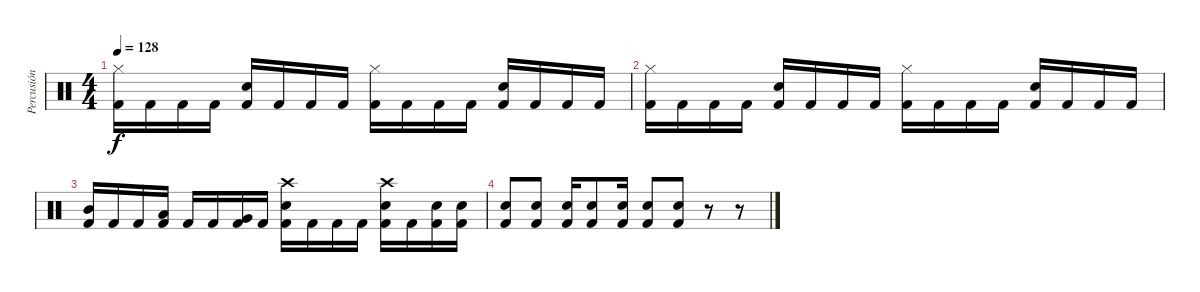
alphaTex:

\track ("Percusión" "Percusión") {instrument percussion}
\staff {score}
\articulation defaults
\ts (4 4)
\tempo 128
\clef neutral
\ks c
("Hi-Hat (closed)" "Kick (hit) 2").16{dy f} "Kick (hit) 2".16 "Kick (hit) 2".16 "Kick (hit) 2".16 ("Snare (hit) 2" "Kick (hit) 2").16 "Kick (hit) 2".16 "Kick (hit) 2".16 "Kick (hit) 2".16 ("Hi-Hat (closed)" "Kick (hit) 2").16 "Kick (hit) 2".16 "Kick (hit) 2".16 "Kick (hit) 2".16 ("Snare (hit) 2" "Kick (hit) 2").16 "Kick (hit) 2".16 "Kick (hit) 2".16 "Kick (hit) 2".16 |
("Hi-Hat (closed)" "Kick (hit) 2").16 "Kick (hit) 2".16 "Kick (hit) 2".16 "Kick (hit) 2".16 ("Snare (hit) 2" "Kick (hit) 2").16 "Kick (hit) 2".16 "Kick (hit) 2".16 "Kick (hit) 2".16 ("Hi-Hat (closed)" "Kick (hit) 2").16 "Kick (hit) 2".16 "Kick (hit) 2".16 "Kick (hit) 2".16 ("Snare (hit) 2" "Kick (hit) 2").16 "Kick (hit) 2".16 "Kick (hit) 2".16 "Kick (hit) 2".16 |
("Mid Tom (hit)" "Kick (hit) 2").16 "Kick (hit) 2".16 "Kick (hit) 2".16 ("Low Tom (hit)" "Kick (hit) 2").16 "Kick (hit) 2".16 "Kick (hit) 2".16 ("Very Low Tom (hit)" "Kick (hit) 2").16 "Kick (hit) 2".16 ("Crash high (hit)" "Snare (hit) 2" "Kick (hit) 2").16 "Kick (hit) 2".16 "Kick (hit) 2".16 "Kick (hit) 2".16 ("Crash high (hit)" "Snare (hit) 2" "Kick (hit) 2").16 "Kick (hit) 2".16 ("Snare (hit) 2" "Kick (hit) 2").16 ("Snare (hit) 2" "Kick (hit) 2").16 |
("Snare (hit) 2" "Kick (hit) 2").8 ("Snare (hit) 2" "Kick (hit) 2").8 ("Snare (hit) 2" "Kick (hit) 2").16 ("Snare (hit) 2" "Kick (hit) 2").8 ("Snare (hit) 2" "Kick (hit) 2").16 ("Snare (hit) 2" "Kick (hit) 2").8 ("Snare (hit) 2" "Kick (hit) 2").8 r.8 r.8
